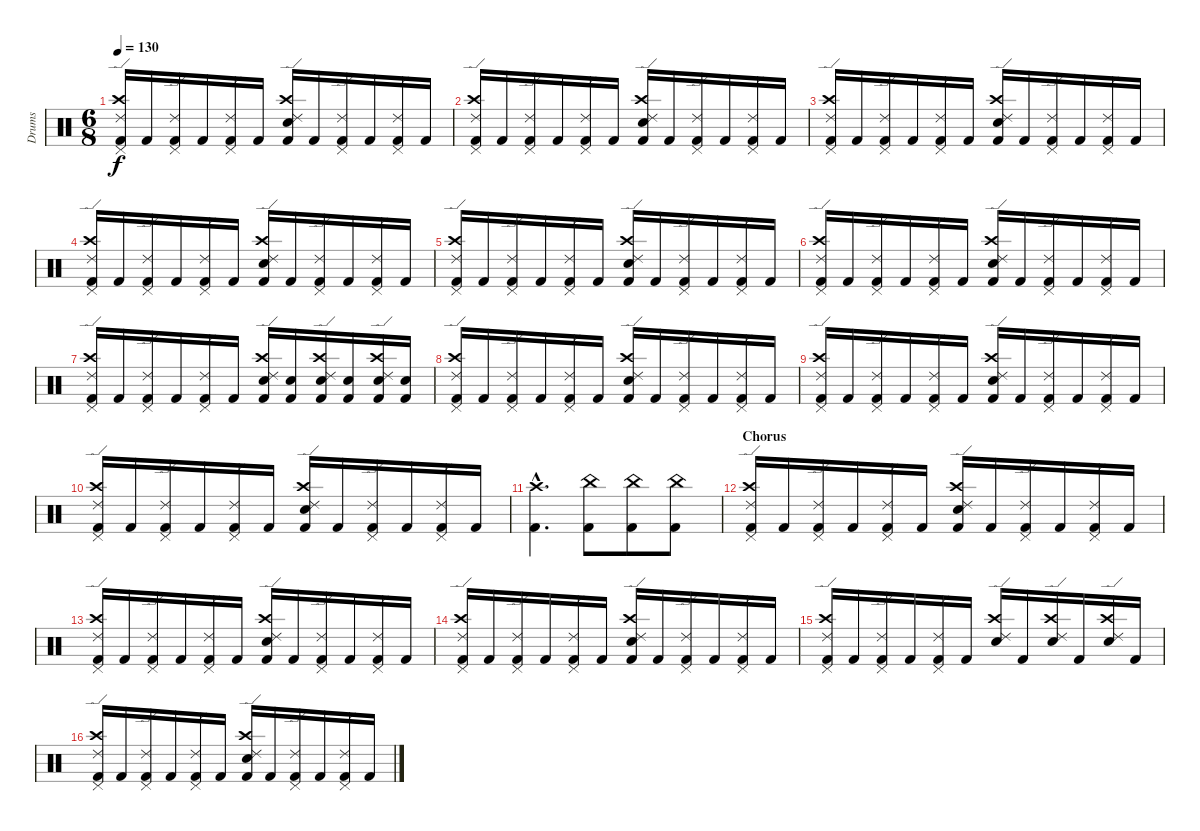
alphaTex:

\track ("Drums" "Drums") {instrument percussion}
\staff {score}
\articulation defaults
\ts (6 8)
\tempo 130
\clef neutral
\ks c
("Ride (edge) 2" "Crash high (hit)" "Pedal Hi-Hat (hit)" "Kick (hit) 2").16{dy f} "Kick (hit) 2".16 ("Ride (edge) 2" "Pedal Hi-Hat (hit)" "Kick (hit) 2").16 "Kick (hit) 2".16 ("Ride (edge) 2" "Pedal Hi-Hat (hit)" "Kick (hit) 2").16 "Kick (hit) 2".16 ("Ride (edge) 2" "Crash high (hit)" "Electric Snare (hit)" "Kick (hit) 2").16 "Kick (hit) 2".16 ("Ride (edge) 2" "Pedal Hi-Hat (hit)" "Kick (hit) 2").16 "Kick (hit) 2".16 ("Ride (edge) 2" "Pedal Hi-Hat (hit)" "Kick (hit) 2").16 "Kick (hit) 2".16 |
("Ride (edge) 2" "Crash high (hit)" "Pedal Hi-Hat (hit)" "Kick (hit) 2").16 "Kick (hit) 2".16 ("Ride (edge) 2" "Pedal Hi-Hat (hit)" "Kick (hit) 2").16 "Kick (hit) 2".16 ("Ride (edge) 2" "Pedal Hi-Hat (hit)" "Kick (hit) 2").16 "Kick (hit) 2".16 ("Ride (edge) 2" "Crash high (hit)" "Electric Snare (hit)" "Kick (hit) 2").16 "Kick (hit) 2".16 ("Ride (edge) 2" "Pedal Hi-Hat (hit)" "Kick (hit) 2").16 "Kick (hit) 2".16 ("Ride (edge) 2" "Pedal Hi-Hat (hit)" "Kick (hit) 2").16 "Kick (hit) 2".16 |
("Ride (edge) 2" "Crash high (hit)" "Pedal Hi-Hat (hit)" "Kick (hit) 2").16 "Kick (hit) 2".16 ("Ride (edge) 2" "Pedal Hi-Hat (hit)" "Kick (hit) 2").16 "Kick (hit) 2".16 ("Ride (edge) 2" "Pedal Hi-Hat (hit)" "Kick (hit) 2").16 "Kick (hit) 2".16 ("Ride (edge) 2" "Crash high (hit)" "Electric Snare (hit)" "Kick (hit) 2").16 "Kick (hit) 2".16 ("Ride (edge) 2" "Pedal Hi-Hat (hit)" "Kick (hit) 2").16 "Kick (hit) 2".16 ("Ride (edge) 2" "Pedal Hi-Hat (hit)" "Kick (hit) 2").16 "Kick (hit) 2".16 |
("Ride (edge) 2" "Crash high (hit)" "Pedal Hi-Hat (hit)" "Kick (hit) 2").16 "Kick (hit) 2".16 ("Ride (edge) 2" "Pedal Hi-Hat (hit)" "Kick (hit) 2").16 "Kick (hit) 2".16 ("Ride (edge) 2" "Pedal Hi-Hat (hit)" "Kick (hit) 2").16 "Kick (hit) 2".16 ("Ride (edge) 2" "Crash high (hit)" "Electric Snare (hit)" "Kick (hit) 2").16 "Kick (hit) 2".16 ("Ride (edge) 2" "Pedal Hi-Hat (hit)" "Kick (hit) 2").16 "Kick (hit) 2".16 ("Ride (edge) 2" "Pedal Hi-Hat (hit)" "Kick (hit) 2").16 "Kick (hit) 2".16 |
("Ride (edge) 2" "Crash high (hit)" "Pedal Hi-Hat (hit)" "Kick (hit) 2").16 "Kick (hit) 2".16 ("Ride (edge) 2" "Pedal Hi-Hat (hit)" "Kick (hit) 2").16 "Kick (hit) 2".16 ("Ride (edge) 2" "Pedal Hi-Hat (hit)" "Kick (hit) 2").16 "Kick (hit) 2".16 ("Ride (edge) 2" "Crash high (hit)" "Electric Snare (hit)" "Kick (hit) 2").16 "Kick (hit) 2".16 ("Ride (edge) 2" "Pedal Hi-Hat (hit)" "Kick (hit) 2").16 "Kick (hit) 2".16 ("Ride (edge) 2" "Pedal Hi-Hat (hit)" "Kick (hit) 2").16 "Kick (hit) 2".16 |
("Ride (edge) 2" "Crash high (hit)" "Pedal Hi-Hat (hit)" "Kick (hit) 2").16 "Kick (hit) 2".16 ("Ride (edge) 2" "Pedal Hi-Hat (hit)" "Kick (hit) 2").16 "Kick (hit) 2".16 ("Ride (edge) 2" "Pedal Hi-Hat (hit)" "Kick (hit) 2").16 "Kick (hit) 2".16 ("Ride (edge) 2" "Crash high (hit)" "Electric Snare (hit)" "Kick (hit) 2").16 "Kick (hit) 2".16 ("Ride (edge) 2" "Pedal Hi-Hat (hit)" "Kick (hit) 2").16 "Kick (hit) 2".16 ("Ride (edge) 2" "Pedal Hi-Hat (hit)" "Kick (hit) 2").16 "Kick (hit) 2".16 |
("Ride (edge) 2" "Crash high (hit)" "Pedal Hi-Hat (hit)" "Kick (hit) 2").16 "Kick (hit) 2".16 ("Ride (edge) 2" "Pedal Hi-Hat (hit)" "Kick (hit) 2").16 "Kick (hit) 2".16 ("Ride (edge) 2" "Pedal Hi-Hat (hit)" "Kick (hit) 2").16 "Kick (hit) 2".16 ("Ride (edge) 2" "Crash high (hit)" "Electric Snare (hit)" "Kick (hit) 2").16 ("Electric Snare (hit)" "Kick (hit) 2").16 ("Ride (edge) 2" "Crash high (hit)" "Electric Snare (hit)" "Kick (hit) 2").16 ("Electric Snare (hit)" "Kick (hit) 2").16 ("Ride (edge) 2" "Crash high (hit)" "Electric Snare (hit)" "Kick (hit) 2").16 ("Electric Snare (hit)" "Kick (hit) 2").16 |
("Ride (edge) 2" "Crash high (hit)" "Pedal Hi-Hat (hit)" "Kick (hit) 2").16 "Kick (hit) 2".16 ("Ride (edge) 2" "Pedal Hi-Hat (hit)" "Kick (hit) 2").16 "Kick (hit) 2".16 ("Ride (edge) 2" "Pedal Hi-Hat (hit)" "Kick (hit) 2").16 "Kick (hit) 2".16 ("Ride (edge) 2" "Crash high (hit)" "Electric Snare (hit)" "Kick (hit) 2").16 "Kick (hit) 2".16 ("Ride (edge) 2" "Pedal Hi-Hat (hit)" "Kick (hit) 2").16 "Kick (hit) 2".16 ("Ride (edge) 2" "Pedal Hi-Hat (hit)" "Kick (hit) 2").16 "Kick (hit) 2".16 |
("Ride (edge) 2" "Crash high (hit)" "Pedal Hi-Hat (hit)" "Kick (hit) 2").16 "Kick (hit) 2".16 ("Ride (edge) 2" "Pedal Hi-Hat (hit)" "Kick (hit) 2").16 "Kick (hit) 2".16 ("Ride (edge) 2" "Pedal Hi-Hat (hit)" "Kick (hit) 2").16 "Kick (hit) 2".16 ("Ride (edge) 2" "Crash high (hit)" "Electric Snare (hit)" "Kick (hit) 2").16 "Kick (hit) 2".16 ("Ride (edge) 2" "Pedal Hi-Hat (hit)" "Kick (hit) 2").16 "Kick (hit) 2".16 ("Ride (edge) 2" "Pedal Hi-Hat (hit)" "Kick (hit) 2").16 "Kick (hit) 2".16 |
("Ride (edge) 2" "Crash high (hit)" "Pedal Hi-Hat (hit)" "Kick (hit) 2").16 "Kick (hit) 2".16 ("Ride (edge) 2" "Pedal Hi-Hat (hit)" "Kick (hit) 2").16 "Kick (hit) 2".16 ("Ride (edge) 2" "Pedal Hi-Hat (hit)" "Kick (hit) 2").16 "Kick (hit) 2".16 ("Ride (edge) 2" "Crash high (hit)" "Electric Snare (hit)" "Kick (hit) 2").16 "Kick (hit) 2".16 ("Ride (edge) 2" "Pedal Hi-Hat (hit)" "Kick (hit) 2").16 "Kick (hit) 2".16 ("Ride (edge) 2" "Pedal Hi-Hat (hit)" "Kick (hit) 2").16 "Kick (hit) 2".16 |
("Crash high (hit)"{hac} "Kick (hit) 2"{hac}).4{d} ("China (hit)" "Kick (hit) 2").8 ("China (hit)" "Kick (hit) 2").8 ("China (hit)" "Kick (hit) 2").8 |
\section ("" "Chorus")
("Ride (edge) 2" "Crash high (hit)" "Pedal Hi-Hat (hit)" "Kick (hit) 2").16 "Kick (hit) 2".16 ("Ride (edge) 2" "Pedal Hi-Hat (hit)" "Kick (hit) 2").16 "Kick (hit) 2".16 ("Ride (edge) 2" "Pedal Hi-Hat (hit)" "Kick (hit) 2").16 "Kick (hit) 2".16 ("Ride (edge) 2" "Crash high (hit)" "Electric Snare (hit)" "Kick (hit) 2").16 "Kick (hit) 2".16 ("Ride (edge) 2" "Pedal Hi-Hat (hit)" "Kick (hit) 2").16 "Kick (hit) 2".16 ("Ride (edge) 2" "Pedal Hi-Hat (hit)" "Kick (hit) 2").16 "Kick (hit) 2".16 |
("Ride (edge) 2" "Crash high (hit)" "Pedal Hi-Hat (hit)" "Kick (hit) 2").16 "Kick (hit) 2".16 ("Ride (edge) 2" "Pedal Hi-Hat (hit)" "Kick (hit) 2").16 "Kick (hit) 2".16 ("Ride (edge) 2" "Pedal Hi-Hat (hit)" "Kick (hit) 2").16 "Kick (hit) 2".16 ("Ride (edge) 2" "Crash high (hit)" "Electric Snare (hit)" "Kick (hit) 2").16 "Kick (hit) 2".16 ("Ride (edge) 2" "Pedal Hi-Hat (hit)" "Kick (hit) 2").16 "Kick (hit) 2".16 ("Ride (edge) 2" "Pedal Hi-Hat (hit)" "Kick (hit) 2").16 "Kick (hit) 2".16 |
("Ride (edge) 2" "Crash high (hit)" "Pedal Hi-Hat (hit)" "Kick (hit) 2").16 "Kick (hit) 2".16 ("Ride (edge) 2" "Pedal Hi-Hat (hit)" "Kick (hit) 2").16 "Kick (hit) 2".16 ("Ride (edge) 2" "Pedal Hi-Hat (hit)" "Kick (hit) 2").16 "Kick (hit) 2".16 ("Ride (edge) 2" "Crash high (hit)" "Electric Snare (hit)" "Kick (hit) 2").16 "Kick (hit) 2".16 ("Ride (edge) 2" "Pedal Hi-Hat (hit)" "Kick (hit) 2").16 "Kick (hit) 2".16 ("Ride (edge) 2" "Pedal Hi-Hat (hit)" "Kick (hit) 2").16 "Kick (hit) 2".16 |
("Ride (edge) 2" "Crash high (hit)" "Pedal Hi-Hat (hit)" "Kick (hit) 2").16 "Kick (hit) 2".16 ("Ride (edge) 2" "Pedal Hi-Hat (hit)" "Kick (hit) 2").16 "Kick (hit) 2".16 ("Ride (edge) 2" "Pedal Hi-Hat (hit)" "Kick (hit) 2").16 "Kick (hit) 2".16 ("Ride (edge) 2" "Crash high (hit)" "Electric Snare (hit)").16 "Kick (hit) 2".16 ("Ride (edge) 2" "Crash high (hit)" "Electric Snare (hit)").16 "Kick (hit) 2".16 ("Ride (edge) 2" "Crash high (hit)" "Electric Snare (hit)").16 "Kick (hit) 2".16 |
("Ride (edge) 2" "Crash high (hit)" "Pedal Hi-Hat (hit)" "Kick (hit) 2").16 "Kick (hit) 2".16 ("Ride (edge) 2" "Pedal Hi-Hat (hit)" "Kick (hit) 2").16 "Kick (hit) 2".16 ("Ride (edge) 2" "Pedal Hi-Hat (hit)" "Kick (hit) 2").16 "Kick (hit) 2".16 ("Ride (edge) 2" "Crash high (hit)" "Electric Snare (hit)" "Kick (hit) 2").16 "Kick (hit) 2".16 ("Ride (edge) 2" "Pedal Hi-Hat (hit)" "Kick (hit) 2").16 "Kick (hit) 2".16 ("Ride (edge) 2" "Pedal Hi-Hat (hit)" "Kick (hit) 2").16 "Kick (hit) 2".16
